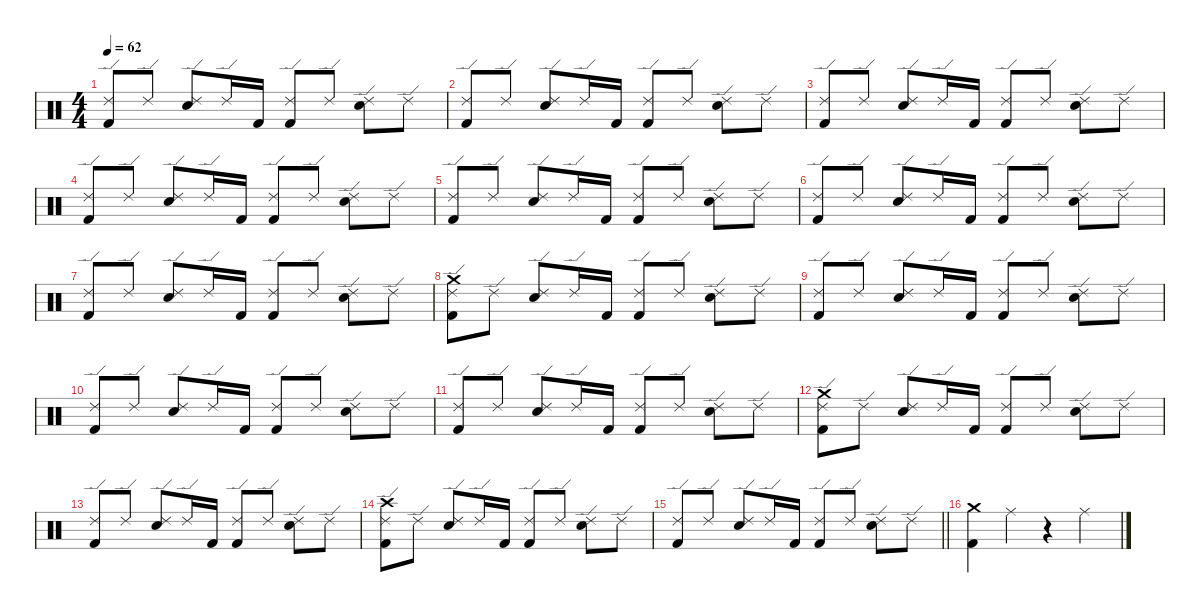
\defaultSystemsLayout 4
\hideDynamics
\bracketExtendMode nobrackets
\singleTrackTrackNamePolicy hidden
\multiTrackTrackNamePolicy hidden
\firstSystemTrackNameMode fullname
\otherSystemsTrackNameOrientation horizontal
\track ("Drums" "drm.") {instrument percussion}
\staff {score}
\articulation defaults
\ts (4 4)
\tempo 62
\clef neutral
\ks c
("Ride (edge) 2" "Kick (hit) 2").8{dy f beam Up} "Ride (edge) 2".8{beam Up} ("Ride (edge) 2" "Snare (hit) 2").8{beam Up} "Ride (edge) 2".16{beam Up} "Kick (hit) 2".16{beam Up} ("Ride (edge) 2" "Kick (hit) 2").8{beam Up} "Ride (edge) 2".8{beam Up} ("Ride (edge) 2" "Snare (hit) 2").8{beam Down} "Ride (edge) 2".8{beam Down} |
("Ride (edge) 2" "Kick (hit) 2").8{beam Up} "Ride (edge) 2".8{beam Up} ("Ride (edge) 2" "Snare (hit) 2").8{beam Up} "Ride (edge) 2".16{beam Up} "Kick (hit) 2".16{beam Up} ("Ride (edge) 2" "Kick (hit) 2").8{beam Up} "Ride (edge) 2".8{beam Up} ("Ride (edge) 2" "Snare (hit) 2").8{beam Down} "Ride (edge) 2".8{beam Down} |
("Ride (edge) 2" "Kick (hit) 2").8{beam Up} "Ride (edge) 2".8{beam Up} ("Ride (edge) 2" "Snare (hit) 2").8{beam Up} "Ride (edge) 2".16{beam Up} "Kick (hit) 2".16{beam Up} ("Ride (edge) 2" "Kick (hit) 2").8{beam Up} "Ride (edge) 2".8{beam Up} ("Ride (edge) 2" "Snare (hit) 2").8{beam Down} "Ride (edge) 2".8{beam Down} |
("Ride (edge) 2" "Kick (hit) 2").8{beam Up} "Ride (edge) 2".8{beam Up} ("Ride (edge) 2" "Snare (hit) 2").8{beam Up} "Ride (edge) 2".16{beam Up} "Kick (hit) 2".16{beam Up} ("Ride (edge) 2" "Kick (hit) 2").8{beam Up} "Ride (edge) 2".8{beam Up} ("Ride (edge) 2" "Snare (hit) 2").8{beam Down} "Ride (edge) 2".8{beam Down} |
("Ride (edge) 2" "Kick (hit) 2").8{beam Up} "Ride (edge) 2".8{beam Up} ("Ride (edge) 2" "Snare (hit) 2").8{beam Up} "Ride (edge) 2".16{beam Up} "Kick (hit) 2".16{beam Up} ("Ride (edge) 2" "Kick (hit) 2").8{beam Up} "Ride (edge) 2".8{beam Up} ("Ride (edge) 2" "Snare (hit) 2").8{beam Down} "Ride (edge) 2".8{beam Down} |
("Ride (edge) 2" "Kick (hit) 2").8{beam Up} "Ride (edge) 2".8{beam Up} ("Ride (edge) 2" "Snare (hit) 2").8{beam Up} "Ride (edge) 2".16{beam Up} "Kick (hit) 2".16{beam Up} ("Ride (edge) 2" "Kick (hit) 2").8{beam Up} "Ride (edge) 2".8{beam Up} ("Ride (edge) 2" "Snare (hit) 2").8{beam Down} "Ride (edge) 2".8{beam Down} |
("Ride (edge) 2" "Kick (hit) 2").8{beam Up} "Ride (edge) 2".8{beam Up} ("Ride (edge) 2" "Snare (hit) 2").8{beam Up} "Ride (edge) 2".16{beam Up} "Kick (hit) 2".16{beam Up} ("Ride (edge) 2" "Kick (hit) 2").8{beam Up} "Ride (edge) 2".8{beam Up} ("Ride (edge) 2" "Snare (hit) 2").8{beam Down} "Ride (edge) 2".8{beam Down} |
("Crash medium (hit)" "Ride (edge) 2" "Kick (hit) 2").8{beam Down} "Ride (edge) 2".8{beam Down} ("Ride (edge) 2" "Snare (hit) 2").8{beam Up} "Ride (edge) 2".16{beam Up} "Kick (hit) 2".16{beam Up} ("Ride (edge) 2" "Kick (hit) 2").8{beam Up} "Ride (edge) 2".8{beam Up} ("Ride (edge) 2" "Snare (hit) 2").8{beam Down} "Ride (edge) 2".8{beam Down} |
("Ride (edge) 2" "Kick (hit) 2").8{beam Up} "Ride (edge) 2".8{beam Up} ("Ride (edge) 2" "Snare (hit) 2").8{beam Up} "Ride (edge) 2".16{beam Up} "Kick (hit) 2".16{beam Up} ("Ride (edge) 2" "Kick (hit) 2").8{beam Up} "Ride (edge) 2".8{beam Up} ("Ride (edge) 2" "Snare (hit) 2").8{beam Down} "Ride (edge) 2".8{beam Down} |
("Ride (edge) 2" "Kick (hit) 2").8{beam Up} "Ride (edge) 2".8{beam Up} ("Ride (edge) 2" "Snare (hit) 2").8{beam Up} "Ride (edge) 2".16{beam Up} "Kick (hit) 2".16{beam Up} ("Ride (edge) 2" "Kick (hit) 2").8{beam Up} "Ride (edge) 2".8{beam Up} ("Ride (edge) 2" "Snare (hit) 2").8{beam Down} "Ride (edge) 2".8{beam Down} |
("Ride (edge) 2" "Kick (hit) 2").8{beam Up} "Ride (edge) 2".8{beam Up} ("Ride (edge) 2" "Snare (hit) 2").8{beam Up} "Ride (edge) 2".16{beam Up} "Kick (hit) 2".16{beam Up} ("Ride (edge) 2" "Kick (hit) 2").8{beam Up} "Ride (edge) 2".8{beam Up} ("Ride (edge) 2" "Snare (hit) 2").8{beam Down} "Ride (edge) 2".8{beam Down} |
("Crash medium (hit)" "Ride (edge) 2" "Kick (hit) 2").8{beam Down} "Ride (edge) 2".8{beam Down} ("Ride (edge) 2" "Snare (hit) 2").8{beam Up} "Ride (edge) 2".16{beam Up} "Kick (hit) 2".16{beam Up} ("Ride (edge) 2" "Kick (hit) 2").8{beam Up} "Ride (edge) 2".8{beam Up} ("Ride (edge) 2" "Snare (hit) 2").8{beam Down} "Ride (edge) 2".8{beam Down} |
("Ride (edge) 2" "Kick (hit) 2").8{beam Up} "Ride (edge) 2".8{beam Up} ("Ride (edge) 2" "Snare (hit) 2").8{beam Up} "Ride (edge) 2".16{beam Up} "Kick (hit) 2".16{beam Up} ("Ride (edge) 2" "Kick (hit) 2").8{beam Up} "Ride (edge) 2".8{beam Up} ("Ride (edge) 2" "Snare (hit) 2").8{beam Down} "Ride (edge) 2".8{beam Down} |
("Crash high (hit)" "Ride (edge) 2" "Kick (hit) 2").8{beam Down} "Ride (edge) 2".8{beam Down} ("Ride (edge) 2" "Snare (hit) 2").8{beam Up} "Ride (edge) 2".16{beam Up} "Kick (hit) 2".16{beam Up} ("Ride (edge) 2" "Kick (hit) 2").8{beam Up} "Ride (edge) 2".8{beam Up} ("Ride (edge) 2" "Snare (hit) 2").8{beam Down} "Ride (edge) 2".8{beam Down} |
\barLineRight lightlight
("Ride (edge) 2" "Kick (hit) 2").8{beam Up} "Ride (edge) 2".8{beam Up} ("Ride (edge) 2" "Snare (hit) 2").8{beam Up} "Ride (edge) 2".16{beam Up} "Kick (hit) 2".16{beam Up} ("Ride (edge) 2" "Kick (hit) 2").8{beam Up} "Ride (edge) 2".8{beam Up} ("Ride (edge) 2" "Snare (hit) 2").8{beam Down} "Ride (edge) 2".8{beam Down} |
("Crash medium (hit)" "Kick (hit) 2").4{beam Down} "Ride (middle)".4{beam Down} r.4{beam Down} "Ride (middle)".4{beam Down}
